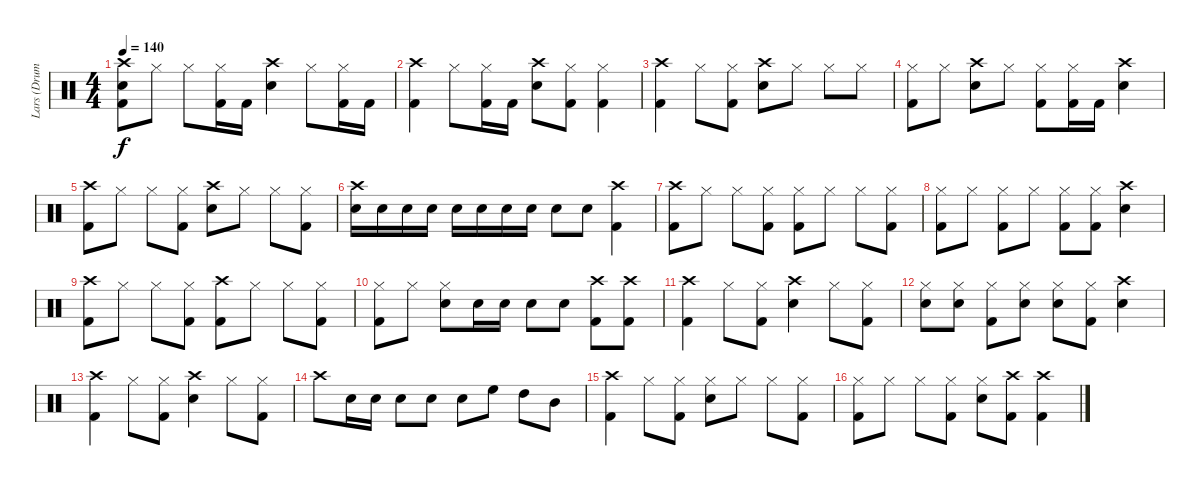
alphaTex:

\track ("Lars (Drums)" "Lars (Drum") {instrument percussion}
\staff {score}
\articulation defaults
\ts (4 4)
\tempo 140
\clef neutral
\ks c
("Crash high (hit)" "Snare (hit) 2" "Kick (hit) 2").8{dy f} "Hi-Hat (closed)".8 "Hi-Hat (closed)".8 ("Hi-Hat (closed)" "Kick (hit) 2").16 "Kick (hit) 2".16 ("Crash high (hit)" "Snare (hit) 2").4 "Hi-Hat (closed)".8 ("Hi-Hat (closed)" "Kick (hit) 2").16 "Kick (hit) 2".16 |
("Crash high (hit)" "Kick (hit) 2").4 "Hi-Hat (closed)".8 ("Hi-Hat (closed)" "Kick (hit) 2").16 "Kick (hit) 2".16 ("Crash high (hit)" "Snare (hit) 2").8 ("Hi-Hat (closed)" "Kick (hit) 2").8 ("Hi-Hat (closed)" "Kick (hit) 2").4 |
("Crash high (hit)" "Kick (hit) 2").4 "Hi-Hat (closed)".8 ("Hi-Hat (closed)" "Kick (hit) 2").8 ("Crash high (hit)" "Snare (hit) 2").8 "Hi-Hat (closed)".8 "Hi-Hat (closed)".8 "Hi-Hat (closed)".8 |
("Hi-Hat (closed)" "Kick (hit) 2").8 "Hi-Hat (closed)".8 ("Snare (hit) 2" "Crash high (hit)").8 "Hi-Hat (closed)".8 ("Hi-Hat (closed)" "Kick (hit) 2").8 ("Hi-Hat (closed)" "Kick (hit) 2").16 "Kick (hit) 2".16 ("Crash high (hit)" "Snare (hit) 2").4 |
("Kick (hit) 2" "Crash high (hit)").8 "Hi-Hat (closed)".8 "Hi-Hat (closed)".8 ("Hi-Hat (closed)" "Kick (hit) 2").8 ("Crash high (hit)" "Snare (hit) 2").8 "Hi-Hat (closed)".8 "Hi-Hat (closed)".8 ("Hi-Hat (closed)" "Kick (hit) 2").8 |
("Crash high (hit)" "Snare (hit) 2").16 "Snare (hit) 2".16 "Snare (hit) 2".16 "Snare (hit) 2".16 "Snare (hit) 2".16 "Snare (hit) 2".16 "Snare (hit) 2".16 "Snare (hit) 2".16 "Snare (hit) 2".8 "Snare (hit) 2".8 ("Crash high (hit)" "Kick (hit) 2").4 |
("Crash high (hit)" "Kick (hit) 2").8 "Hi-Hat (closed)".8 "Hi-Hat (closed)".8 ("Hi-Hat (closed)" "Kick (hit) 2").8 ("Hi-Hat (closed)" "Kick (hit) 2").8 "Hi-Hat (closed)".8 "Hi-Hat (closed)".8 ("Hi-Hat (closed)" "Kick (hit) 2").8 |
("Hi-Hat (closed)" "Kick (hit) 2").8 "Hi-Hat (closed)".8 ("Hi-Hat (closed)" "Kick (hit) 2").8 "Hi-Hat (closed)".8 ("Hi-Hat (closed)" "Kick (hit) 2").8 ("Hi-Hat (closed)" "Kick (hit) 2").8 ("Crash high (hit)" "Snare (hit) 2").4 |
("Crash high (hit)" "Kick (hit) 2").8 "Hi-Hat (closed)".8 "Hi-Hat (closed)".8 ("Hi-Hat (closed)" "Kick (hit) 2").8 ("Crash high (hit)" "Kick (hit) 2").8 "Hi-Hat (closed)".8 "Hi-Hat (closed)".8 ("Hi-Hat (closed)" "Kick (hit) 2").8 |
("Hi-Hat (closed)" "Kick (hit) 2").8 "Hi-Hat (closed)".8 ("Hi-Hat (closed)" "Snare (hit) 2").8 "Snare (hit) 2".16 "Snare (hit) 2".16 "Snare (hit) 2".8 "Snare (hit) 2".8 ("Crash high (hit)" "Kick (hit) 2").8 ("Crash high (hit)" "Kick (hit) 2").8 |
("Crash high (hit)" "Kick (hit) 2").4 "Hi-Hat (closed)".8 ("Hi-Hat (closed)" "Kick (hit) 2").8 ("Crash high (hit)" "Snare (hit) 2").4 "Hi-Hat (closed)".8 ("Hi-Hat (closed)" "Kick (hit) 2").8 |
("Hi-Hat (closed)" "Snare (hit) 2").8 ("Hi-Hat (closed)" "Snare (hit) 2").8 ("Hi-Hat (closed)" "Kick (hit) 2").8 ("Hi-Hat (closed)" "Snare (hit) 2").8 ("Hi-Hat (closed)" "Snare (hit) 2").8 ("Hi-Hat (closed)" "Kick (hit) 2").8 ("Crash high (hit)" "Snare (hit) 2").4 |
("Crash high (hit)" "Kick (hit) 2").4 "Hi-Hat (closed)".8 ("Hi-Hat (closed)" "Kick (hit) 2").8 ("Crash high (hit)" "Snare (hit) 2").4 "Hi-Hat (closed)".8 ("Hi-Hat (closed)" "Kick (hit) 2").8 |
"Crash high (hit)".8 "Snare (hit) 2".16 "Snare (hit) 2".16 "Snare (hit) 2".8 "Snare (hit) 2".8 "Snare (hit) 2".8 "High Floor Tom (hit)".8 "High Tom (hit)".8 "Mid Tom (hit)".8 |
("Crash high (hit)" "Kick (hit) 2").4 "Hi-Hat (closed)".8 ("Hi-Hat (closed)" "Kick (hit) 2").8 ("Hi-Hat (closed)" "Snare (hit) 2").8 "Hi-Hat (closed)".8 "Hi-Hat (closed)".8 ("Hi-Hat (closed)" "Kick (hit) 2").8 |
("Hi-Hat (closed)" "Kick (hit) 2").8 "Hi-Hat (closed)".8 "Hi-Hat (closed)".8 ("Hi-Hat (closed)" "Kick (hit) 2").8 ("Hi-Hat (closed)" "Snare (hit) 2").8 ("Crash high (hit)" "Kick (hit) 2").8 ("Crash high (hit)" "Kick (hit) 2").4
